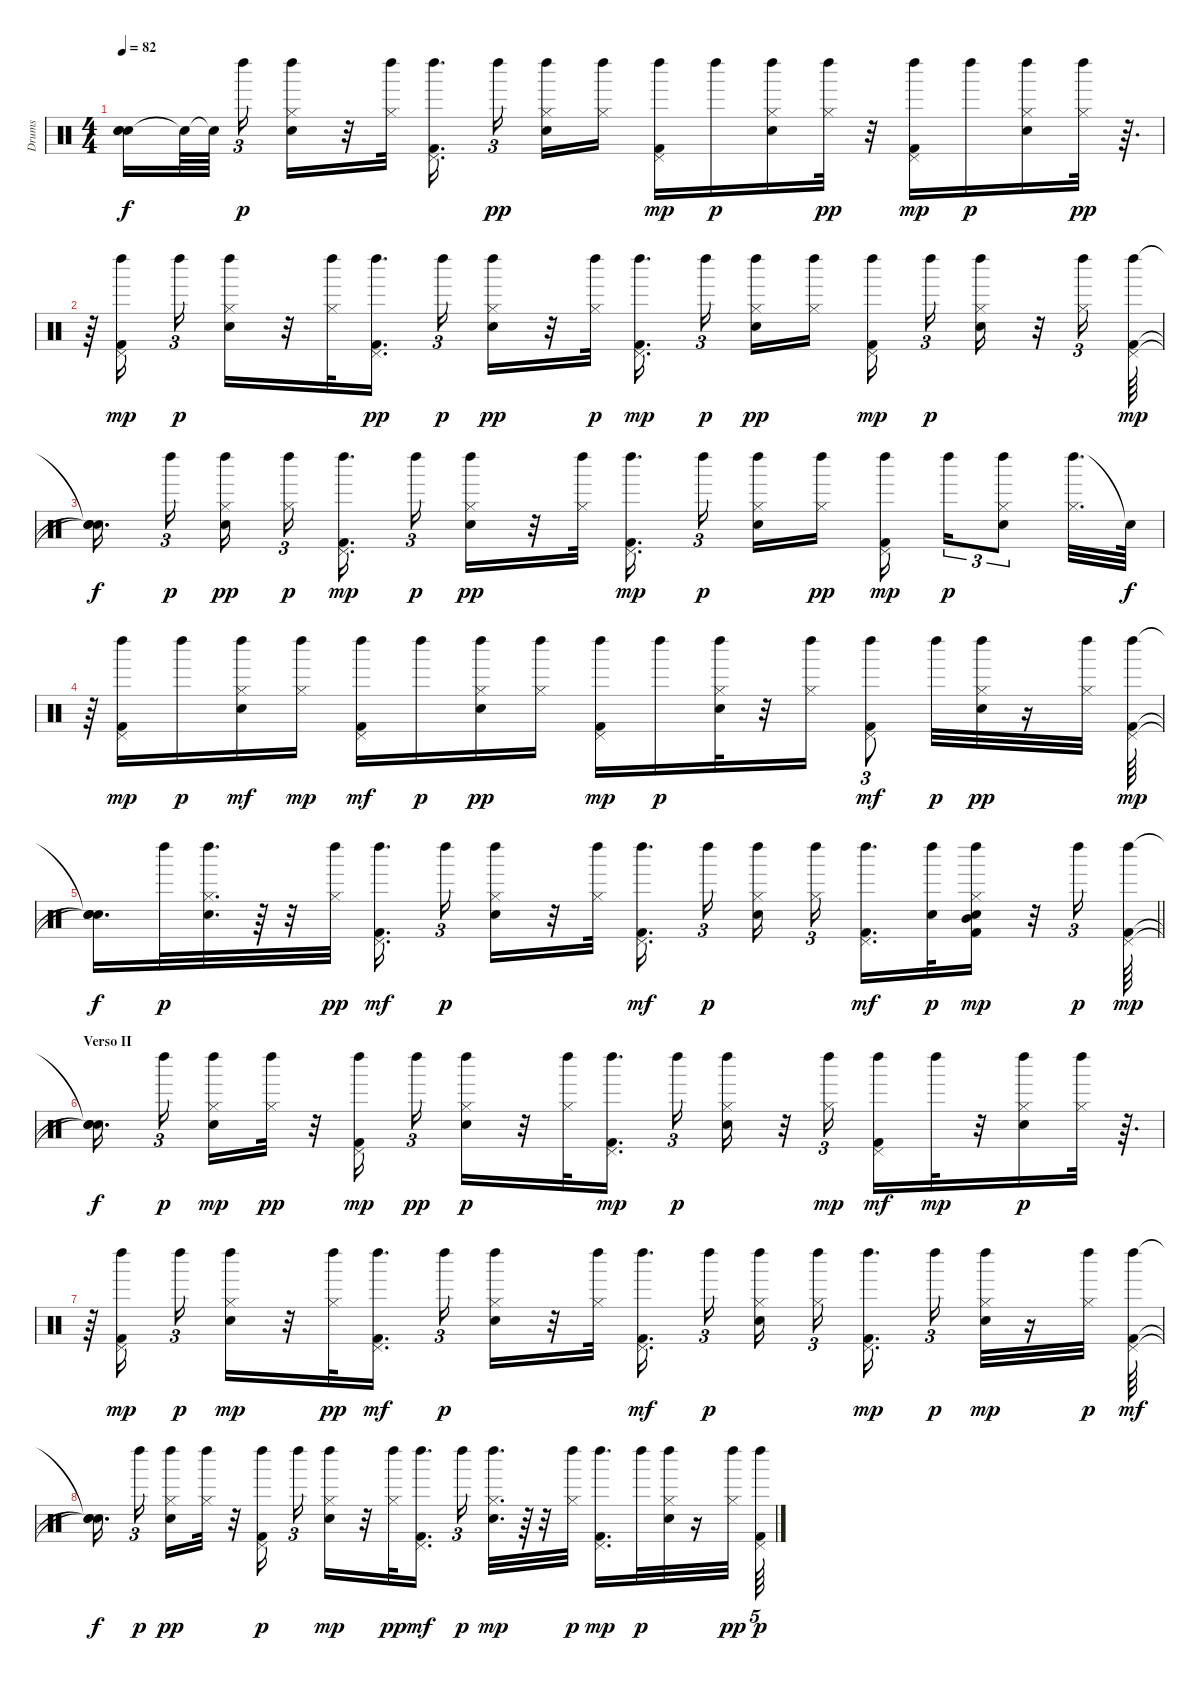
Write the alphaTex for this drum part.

\track ("Drums" "Drums") {instrument percussion}
\staff {score}
\articulation defaults
\ts (4 4)
\tempo 82
\clef neutral
\ks c
("Snare (hit)"{t} "Snare (hit)"{t} "Snare (hit)"{t}).16{dy f} "Snare (hit)"{t}.64 "Snare (hit)"{t}.64{beam splitsecondary} "Left Maraca (hit)".16{tu (3 2) dy p} ("Hi-Hat (closed)" "Hand Clap (hit)" "Left Maraca (hit)").16 r.32 ("Left Maraca (hit)" "Hi-Hat (closed)").32 ("Pedal Hi-Hat (hit)" "Left Maraca (hit)" "Kick (hit) 2").16{d beam splitsecondary} "Left Maraca (hit)".16{tu (3 2) dy pp beam splitsecondary} ("Hi-Hat (closed)" "Hand Clap (hit)" "Left Maraca (hit)").16 ("Left Maraca (hit)" "Hi-Hat (closed)").16 ("Pedal Hi-Hat (hit)" "Left Maraca (hit)" "Kick (hit) 2").16{dy mp} "Left Maraca (hit)".16{dy p} ("Hi-Hat (closed)" "Hand Clap (hit)" "Left Maraca (hit)").16 ("Left Maraca (hit)" "Hi-Hat (closed)").32{dy pp} r.32 ("Pedal Hi-Hat (hit)" "Left Maraca (hit)" "Kick (hit) 2").16{dy mp} "Left Maraca (hit)".16{dy p} ("Hi-Hat (closed)" "Left Maraca (hit)" "Hand Clap (hit)").16 ("Hi-Hat (closed)" "Left Maraca (hit)").32{dy pp} r.64{d} |
r.64 ("Pedal Hi-Hat (hit)" "Left Maraca (hit)" "Kick (hit) 2").16{dy mp beam splitsecondary} "Left Maraca (hit)".16{tu (3 2) dy p} ("Hi-Hat (closed)" "Hand Clap (hit)" "Left Maraca (hit)").16 r.32 ("Left Maraca (hit)" "Hi-Hat (closed)").32 ("Left Maraca (hit)" "Kick (hit) 2" "Pedal Hi-Hat (hit)").16{d dy pp} "Left Maraca (hit)".16{tu (3 2) dy p} ("Hi-Hat (closed)" "Hand Clap (hit)" "Left Maraca (hit)").16{dy pp} r.32 ("Left Maraca (hit)" "Hi-Hat (closed)").32{dy p} ("Pedal Hi-Hat (hit)" "Left Maraca (hit)" "Kick (hit) 2").16{d dy mp beam splitsecondary} "Left Maraca (hit)".16{tu (3 2) dy p beam splitsecondary} ("Hi-Hat (closed)" "Left Maraca (hit)" "Hand Clap (hit)").16{dy pp} ("Left Maraca (hit)" "Hi-Hat (closed)").16 ("Pedal Hi-Hat (hit)" "Left Maraca (hit)" "Kick (hit) 2").16{dy mp beam splitsecondary} "Left Maraca (hit)".16{tu (3 2) dy p} ("Hi-Hat (closed)" "Left Maraca (hit)" "Hand Clap (hit)").16 r.32 ("Hi-Hat (closed)" "Left Maraca (hit)").16{tu (3 2)} ("Pedal Hi-Hat (hit)" "Left Maraca (hit)" "Kick (hit) 2").64{dy mp} |
("Snare (hit)"{t} "Snare (hit)"{t} "Snare (hit)"{t}).16{d dy f beam splitsecondary} "Left Maraca (hit)".16{tu (3 2) dy p beam splitsecondary} ("Hi-Hat (closed)" "Left Maraca (hit)" "Hand Clap (hit)").16{dy pp beam splitsecondary} ("Hi-Hat (closed)" "Left Maraca (hit)").16{tu (3 2) dy p} ("Pedal Hi-Hat (hit)" "Left Maraca (hit)" "Kick (hit) 2").16{d dy mp} "Left Maraca (hit)".16{tu (3 2) dy p} ("Hi-Hat (closed)" "Left Maraca (hit)" "Hand Clap (hit)").16{dy pp} r.32 ("Left Maraca (hit)" "Hi-Hat (closed)").32 ("Pedal Hi-Hat (hit)" "Left Maraca (hit)" "Kick (hit) 2").16{d dy mp beam splitsecondary} "Left Maraca (hit)".16{tu (3 2) dy p beam splitsecondary} ("Hi-Hat (closed)" "Left Maraca (hit)" "Hand Clap (hit)").16 ("Left Maraca (hit)" "Hi-Hat (closed)").16{dy pp} ("Pedal Hi-Hat (hit)" "Left Maraca (hit)" "Kick (hit) 2").16{dy mp beam splitsecondary} "Left Maraca (hit)".16{tu (3 2) dy p} ("Hi-Hat (closed)" "Left Maraca (hit)" "Hand Clap (hit)").8{tu (3 2)} ("Left Maraca (hit)" "Hi-Hat (closed)").32{d} "Snare (hit)"{t}.64{dy f} |
r.64 ("Pedal Hi-Hat (hit)" "Left Maraca (hit)" "Kick (hit) 2").16{dy mp} "Left Maraca (hit)".16{dy p} ("Hi-Hat (closed)" "Left Maraca (hit)" "Hand Clap (hit)").16{dy mf} ("Hi-Hat (closed)" "Left Maraca (hit)").16{dy mp} ("Pedal Hi-Hat (hit)" "Left Maraca (hit)" "Kick (hit) 2").16{dy mf} "Left Maraca (hit)".16{dy p} ("Hi-Hat (closed)" "Hand Clap (hit)" "Left Maraca (hit)").16{dy pp} ("Hi-Hat (closed)" "Left Maraca (hit)").16 ("Pedal Hi-Hat (hit)" "Left Maraca (hit)" "Kick (hit) 2").16{dy mp} "Left Maraca (hit)".16{dy p} ("Hi-Hat (closed)" "Hand Clap (hit)" "Left Maraca (hit)").32 r.32 ("Hi-Hat (closed)" "Left Maraca (hit)").16 ("Pedal Hi-Hat (hit)" "Kick (hit) 2" "Left Maraca (hit)").8{tu (3 2) dy mf} "Left Maraca (hit)".32{dy p} ("Hi-Hat (closed)" "Hand Clap (hit)" "Left Maraca (hit)").32{dy pp} r.16 ("Hi-Hat (closed)" "Left Maraca (hit)").32 ("Pedal Hi-Hat (hit)" "Left Maraca (hit)" "Kick (hit) 2").64{dy mp} |
\barLineRight lightlight
("Snare (hit)"{t} "Snare (hit)"{t} "Snare (hit)"{t}).16{d dy f} "Left Maraca (hit)".32{dy p} ("Hi-Hat (closed)" "Left Maraca (hit)" "Hand Clap (hit)").32{d} r.64 r.32 ("Left Maraca (hit)" "Hi-Hat (closed)").32{dy pp} ("Pedal Hi-Hat (hit)" "Left Maraca (hit)" "Kick (hit) 2").16{d dy mf beam splitsecondary} "Left Maraca (hit)".16{tu (3 2) dy p} ("Hi-Hat (closed)" "Left Maraca (hit)" "Hand Clap (hit)").16 r.32 ("Hi-Hat (closed)" "Left Maraca (hit)").32 ("Pedal Hi-Hat (hit)" "Left Maraca (hit)" "Kick (hit) 2").16{d dy mf beam splitsecondary} "Left Maraca (hit)".16{tu (3 2) dy p beam splitsecondary} ("Hi-Hat (closed)" "Left Maraca (hit)" "Hand Clap (hit)").16 ("Hi-Hat (closed)" "Left Maraca (hit)").16{tu (3 2)} ("Pedal Hi-Hat (hit)" "Left Maraca (hit)" "Kick (hit) 2").16{d dy mf} ("Left Maraca (hit)" "Hand Clap (hit)").32{dy p} ("Hi-Hat (closed)" "Mid Tom (hit)" "Hand Clap (hit)" "Kick (hit) 2" "Left Maraca (hit)").16{dy mp} r.32 "Left Maraca (hit)".16{tu (3 2) dy p} ("Pedal Hi-Hat (hit)" "Left Maraca (hit)" "Kick (hit) 2").64{dy mp} |
\section ("" "Verso II")
("Snare (hit)"{t} "Snare (hit)"{t} "Snare (hit)"{t}).16{d dy f beam splitsecondary} "Left Maraca (hit)".16{tu (3 2) dy p beam splitsecondary} ("Hi-Hat (closed)" "Hand Clap (hit)" "Left Maraca (hit)").16{dy mp} ("Left Maraca (hit)" "Hi-Hat (closed)").32{dy pp} r.32 ("Pedal Hi-Hat (hit)" "Kick (hit) 2" "Left Maraca (hit)").16{dy mp beam splitsecondary} "Left Maraca (hit)".16{tu (3 2) dy pp} ("Hi-Hat (closed)" "Left Maraca (hit)" "Hand Clap (hit)").16{dy p} r.32 ("Left Maraca (hit)" "Hi-Hat (closed)").32 ("Pedal Hi-Hat (hit)" "Kick (hit) 2" "Left Maraca (hit)").16{d dy mp} "Left Maraca (hit)".16{tu (3 2) dy p} ("Hi-Hat (closed)" "Hand Clap (hit)" "Left Maraca (hit)").16 r.32 ("Hi-Hat (closed)" "Left Maraca (hit)").16{tu (3 2) dy mp} ("Pedal Hi-Hat (hit)" "Left Maraca (hit)" "Kick (hit) 2").16{dy mf} "Left Maraca (hit)".32{dy mp} r.32 ("Hi-Hat (closed)" "Hand Clap (hit)" "Left Maraca (hit)").16{dy p} ("Left Maraca (hit)" "Hi-Hat (closed)").32 r.64{d} |
r.64 ("Pedal Hi-Hat (hit)" "Left Maraca (hit)" "Kick (hit) 2").16{dy mp beam splitsecondary} "Left Maraca (hit)".16{tu (3 2) dy p} ("Hi-Hat (closed)" "Hand Clap (hit)" "Left Maraca (hit)").16{dy mp} r.32 ("Left Maraca (hit)" "Hi-Hat (closed)").32{dy pp} ("Pedal Hi-Hat (hit)" "Left Maraca (hit)" "Kick (hit) 2").16{d dy mf} "Left Maraca (hit)".16{tu (3 2) dy p} ("Hi-Hat (closed)" "Hand Clap (hit)" "Left Maraca (hit)").16 r.32 ("Left Maraca (hit)" "Hi-Hat (closed)").32 ("Pedal Hi-Hat (hit)" "Left Maraca (hit)" "Kick (hit) 2").16{d dy mf beam splitsecondary} "Left Maraca (hit)".16{tu (3 2) dy p beam splitsecondary} ("Hi-Hat (closed)" "Left Maraca (hit)" "Hand Clap (hit)").16{beam splitsecondary} ("Hi-Hat (closed)" "Left Maraca (hit)").16{tu (3 2)} ("Pedal Hi-Hat (hit)" "Left Maraca (hit)" "Kick (hit) 2").16{d dy mp} "Left Maraca (hit)".16{tu (3 2) dy p} ("Hi-Hat (closed)" "Left Maraca (hit)" "Hand Clap (hit)").32{dy mp} r.16 ("Left Maraca (hit)" "Hi-Hat (closed)").32{dy p} ("Pedal Hi-Hat (hit)" "Left Maraca (hit)" "Kick (hit) 2").64{dy mf} |
("Snare (hit)"{t} "Snare (hit)"{t} "Snare (hit)"{t}).16{d dy f beam splitsecondary} "Left Maraca (hit)".16{tu (3 2) dy p beam splitsecondary} ("Hi-Hat (closed)" "Left Maraca (hit)" "Hand Clap (hit)").16{dy pp} ("Left Maraca (hit)" "Hi-Hat (closed)").32 r.32 ("Left Maraca (hit)" "Kick (hit) 2" "Pedal Hi-Hat (hit)").16{dy p beam splitsecondary} "Left Maraca (hit)".16{tu (3 2)} ("Hi-Hat (closed)" "Left Maraca (hit)" "Hand Clap (hit)").16{dy mp} r.32 ("Hi-Hat (closed)" "Left Maraca (hit)").32{dy pp} ("Pedal Hi-Hat (hit)" "Left Maraca (hit)" "Kick (hit) 2").16{d dy mf} "Left Maraca (hit)".16{tu (3 2) dy p} ("Hi-Hat (closed)" "Left Maraca (hit)" "Hand Clap (hit)").32{d dy mp} r.64 r.32 ("Hi-Hat (closed)" "Left Maraca (hit)").32{dy p} ("Pedal Hi-Hat (hit)" "Left Maraca (hit)" "Kick (hit) 2").16{d dy mp} "Left Maraca (hit)".32{dy p} ("Hi-Hat (closed)" "Left Maraca (hit)" "Hand Clap (hit)").32 r.16 ("Hi-Hat (closed)" "Left Maraca (hit)").32{dy pp} ("Left Maraca (hit)" "Kick (hit) 2" "Pedal Hi-Hat (hit)").64{tu (5 4) dy p}
